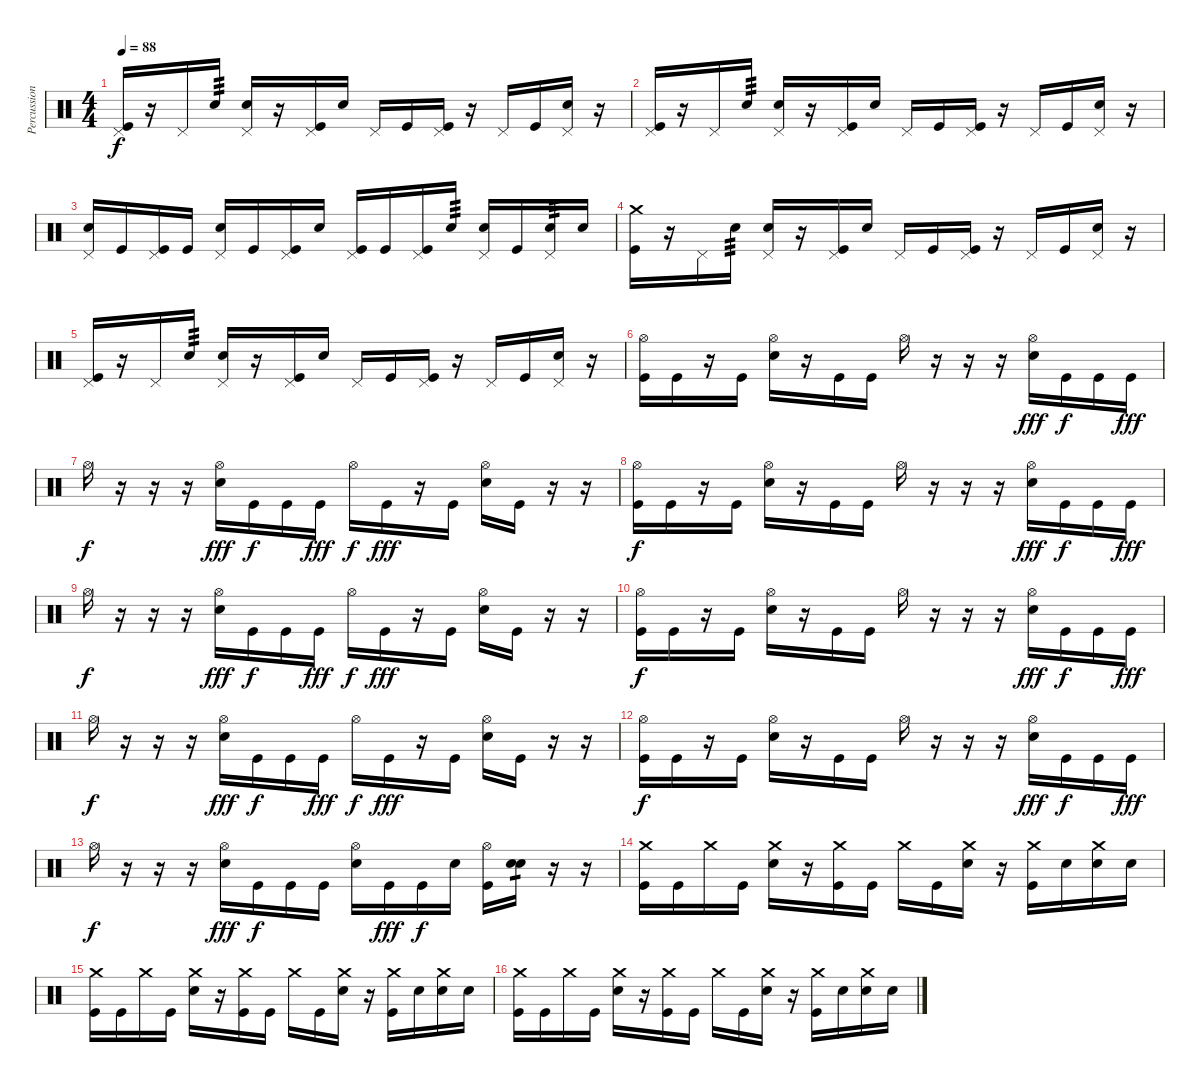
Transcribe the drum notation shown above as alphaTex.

\track ("Percussions" "Percussion") {instrument percussion}
\staff {score}
\articulation defaults
\ts (4 4)
\tempo 88
\clef neutral
\ks c
("Pedal Hi-Hat (hit)" "Kick (hit)").16{dy f} r.16 "Pedal Hi-Hat (hit)".16 "Snare (hit) 2".16{tp 3} ("Pedal Hi-Hat (hit)" "Snare (hit) 2").16 r.16 ("Pedal Hi-Hat (hit)" "Kick (hit)").16 "Snare (hit) 2".16 "Pedal Hi-Hat (hit)".16 "Kick (hit)".16 ("Pedal Hi-Hat (hit)" "Kick (hit)").16 r.16 "Pedal Hi-Hat (hit)".16 "Kick (hit)".16 ("Pedal Hi-Hat (hit)" "Snare (hit) 2").16 r.16 |
("Pedal Hi-Hat (hit)" "Kick (hit)").16 r.16 "Pedal Hi-Hat (hit)".16 "Snare (hit) 2".16{tp 3} ("Pedal Hi-Hat (hit)" "Snare (hit) 2").16 r.16 ("Pedal Hi-Hat (hit)" "Kick (hit)").16 "Snare (hit) 2".16 "Pedal Hi-Hat (hit)".16 "Kick (hit)".16 ("Pedal Hi-Hat (hit)" "Kick (hit)").16 r.16 "Pedal Hi-Hat (hit)".16 "Kick (hit)".16 ("Pedal Hi-Hat (hit)" "Snare (hit) 2").16 r.16 |
("Pedal Hi-Hat (hit)" "Snare (hit) 2").16 "Kick (hit)".16 ("Pedal Hi-Hat (hit)" "Kick (hit)").16 "Kick (hit)".16 ("Pedal Hi-Hat (hit)" "Snare (hit) 2").16 "Kick (hit)".16 ("Pedal Hi-Hat (hit)" "Kick (hit)").16 "Snare (hit) 2".16 ("Pedal Hi-Hat (hit)" "Kick (hit)").16 "Kick (hit)".16 ("Pedal Hi-Hat (hit)" "Kick (hit)").16 "Snare (hit) 2".16{tp 3} ("Pedal Hi-Hat (hit)" "Snare (hit) 2").16 "Kick (hit)".16 ("Pedal Hi-Hat (hit)" "Snare (hit) 2").16{tp 3} "Snare (hit) 2".16 |
("Crash medium (hit)" "Kick (hit)").16 r.16 "Pedal Hi-Hat (hit)".16 "Snare (hit) 2".16{tp 3} ("Pedal Hi-Hat (hit)" "Snare (hit) 2").16 r.16 ("Pedal Hi-Hat (hit)" "Kick (hit)").16 "Snare (hit) 2".16 "Pedal Hi-Hat (hit)".16 "Kick (hit)".16 ("Pedal Hi-Hat (hit)" "Kick (hit)").16 r.16 "Pedal Hi-Hat (hit)".16 "Kick (hit)".16 ("Pedal Hi-Hat (hit)" "Snare (hit) 2").16 r.16 |
("Pedal Hi-Hat (hit)" "Kick (hit)").16 r.16 "Pedal Hi-Hat (hit)".16 "Snare (hit) 2".16{tp 3} ("Pedal Hi-Hat (hit)" "Snare (hit) 2").16 r.16 ("Pedal Hi-Hat (hit)" "Kick (hit)").16 "Snare (hit) 2".16 "Pedal Hi-Hat (hit)".16 "Kick (hit)".16 ("Pedal Hi-Hat (hit)" "Kick (hit)").16 r.16 "Pedal Hi-Hat (hit)".16 "Kick (hit)".16 ("Pedal Hi-Hat (hit)" "Snare (hit) 2").16 r.16 |
("Hi-Hat (open)" "Kick (hit)").16 "Kick (hit)".16 r.16 "Kick (hit)".16 ("Hi-Hat (open)" "Snare (hit) 2").16 r.16 "Kick (hit)".16 "Kick (hit)".16 "Hi-Hat (open)".16 r.16 r.16 r.16 ("Hi-Hat (open)" "Snare (hit) 2").16{dy fff} "Kick (hit)".16{dy f} "Kick (hit)".16 "Kick (hit)".16{dy fff} |
"Hi-Hat (open)".16{dy f} r.16 r.16 r.16 ("Hi-Hat (open)" "Snare (hit) 2").16{dy fff} "Kick (hit)".16{dy f} "Kick (hit)".16 "Kick (hit)".16{dy fff} "Hi-Hat (open)".16{dy f} "Kick (hit)".16{dy fff} r.16 "Kick (hit)".16 ("Hi-Hat (open)" "Snare (hit) 2").16 "Kick (hit)".16 r.16 r.16 |
("Hi-Hat (open)" "Kick (hit)").16{dy f} "Kick (hit)".16 r.16 "Kick (hit)".16 ("Hi-Hat (open)" "Snare (hit) 2").16 r.16 "Kick (hit)".16 "Kick (hit)".16 "Hi-Hat (open)".16 r.16 r.16 r.16 ("Hi-Hat (open)" "Snare (hit) 2").16{dy fff} "Kick (hit)".16{dy f} "Kick (hit)".16 "Kick (hit)".16{dy fff} |
"Hi-Hat (open)".16{dy f} r.16 r.16 r.16 ("Hi-Hat (open)" "Snare (hit) 2").16{dy fff} "Kick (hit)".16{dy f} "Kick (hit)".16 "Kick (hit)".16{dy fff} "Hi-Hat (open)".16{dy f} "Kick (hit)".16{dy fff} r.16 "Kick (hit)".16 ("Hi-Hat (open)" "Snare (hit) 2").16 "Kick (hit)".16 r.16 r.16 |
("Hi-Hat (open)" "Kick (hit)").16{dy f} "Kick (hit)".16 r.16 "Kick (hit)".16 ("Hi-Hat (open)" "Snare (hit) 2").16 r.16 "Kick (hit)".16 "Kick (hit)".16 "Hi-Hat (open)".16 r.16 r.16 r.16 ("Hi-Hat (open)" "Snare (hit) 2").16{dy fff} "Kick (hit)".16{dy f} "Kick (hit)".16 "Kick (hit)".16{dy fff} |
"Hi-Hat (open)".16{dy f} r.16 r.16 r.16 ("Hi-Hat (open)" "Snare (hit) 2").16{dy fff} "Kick (hit)".16{dy f} "Kick (hit)".16 "Kick (hit)".16{dy fff} "Hi-Hat (open)".16{dy f} "Kick (hit)".16{dy fff} r.16 "Kick (hit)".16 ("Hi-Hat (open)" "Snare (hit) 2").16 "Kick (hit)".16 r.16 r.16 |
("Hi-Hat (open)" "Kick (hit)").16{dy f} "Kick (hit)".16 r.16 "Kick (hit)".16 ("Hi-Hat (open)" "Snare (hit) 2").16 r.16 "Kick (hit)".16 "Kick (hit)".16 "Hi-Hat (open)".16 r.16 r.16 r.16 ("Hi-Hat (open)" "Snare (hit) 2").16{dy fff} "Kick (hit)".16{dy f} "Kick (hit)".16 "Kick (hit)".16{dy fff} |
"Hi-Hat (open)".16{dy f} r.16 r.16 r.16 ("Hi-Hat (open)" "Snare (hit) 2").16{dy fff} "Kick (hit)".16{dy f} "Kick (hit)".16 "Kick (hit)".16 ("Hi-Hat (open)" "Snare (hit) 2").16 "Kick (hit)".16{dy fff} "Kick (hit)".16{dy f} "Snare (hit) 2".16 ("Hi-Hat (open)" "Kick (hit)").16 ("Electric Snare (hit)" "Snare (hit) 2").16{tp 1} r.16 r.16 |
("Crash medium (hit)" "Kick (hit)").16 "Kick (hit)".16 "Crash medium (hit)".16 "Kick (hit)".16 ("Crash medium (hit)" "Snare (hit) 2").16 r.16 ("Crash medium (hit)" "Kick (hit)").16 "Kick (hit)".16 "Crash medium (hit)".16 "Kick (hit)".16 ("Crash medium (hit)" "Snare (hit) 2").16 r.16 ("Crash medium (hit)" "Kick (hit)").16 "Snare (hit) 2".16 ("Crash medium (hit)" "Snare (hit) 2").16 "Snare (hit) 2".16 |
("Crash medium (hit)" "Kick (hit)").16 "Kick (hit)".16 "Crash medium (hit)".16 "Kick (hit)".16 ("Crash medium (hit)" "Snare (hit) 2").16 r.16 ("Crash medium (hit)" "Kick (hit)").16 "Kick (hit)".16 "Crash medium (hit)".16 "Kick (hit)".16 ("Crash medium (hit)" "Snare (hit) 2").16 r.16 ("Crash medium (hit)" "Kick (hit)").16 "Snare (hit) 2".16 ("Crash medium (hit)" "Snare (hit) 2").16 "Snare (hit) 2".16 |
("Crash medium (hit)" "Kick (hit)").16 "Kick (hit)".16 "Crash medium (hit)".16 "Kick (hit)".16 ("Crash medium (hit)" "Snare (hit) 2").16 r.16 ("Crash medium (hit)" "Kick (hit)").16 "Kick (hit)".16 "Crash medium (hit)".16 "Kick (hit)".16 ("Crash medium (hit)" "Snare (hit) 2").16 r.16 ("Crash medium (hit)" "Kick (hit)").16 "Snare (hit) 2".16 ("Crash medium (hit)" "Snare (hit) 2").16 "Snare (hit) 2".16
